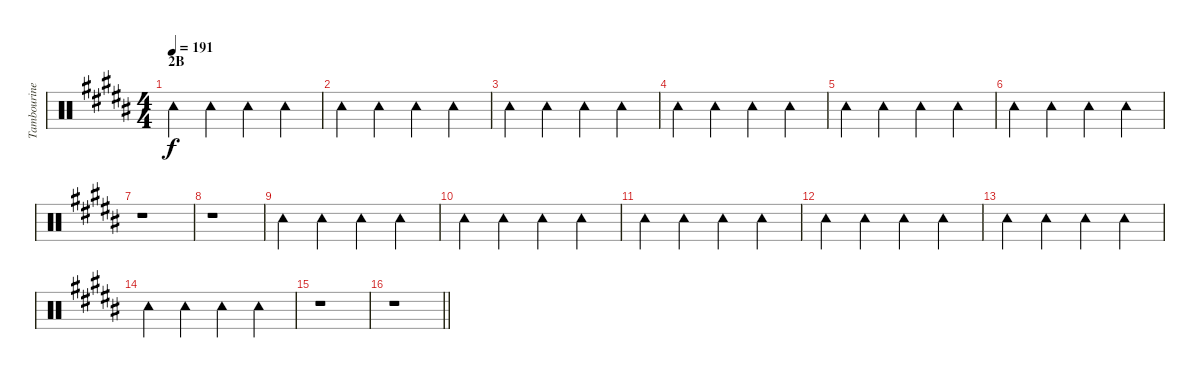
\track ("Tambourine" "Tambourine") {instrument percussion}
\staff {score}
\articulation defaults
\ts (4 4)
\section ("" "2B")
\tempo 191
\clef neutral
\ks b "Tambourine (hit)".4{dy f} "Tambourine (hit)".4 "Tambourine (hit)".4 "Tambourine (hit)".4
|
"Tambourine (hit)".4 "Tambourine (hit)".4 "Tambourine (hit)".4 "Tambourine (hit)".4 |
"Tambourine (hit)".4 "Tambourine (hit)".4 "Tambourine (hit)".4 "Tambourine (hit)".4 |
"Tambourine (hit)".4 "Tambourine (hit)".4 "Tambourine (hit)".4 "Tambourine (hit)".4 |
"Tambourine (hit)".4 "Tambourine (hit)".4 "Tambourine (hit)".4 "Tambourine (hit)".4 |
"Tambourine (hit)".4 "Tambourine (hit)".4 "Tambourine (hit)".4 "Tambourine (hit)".4 |
r.1 |
r.1 |
"Tambourine (hit)".4 "Tambourine (hit)".4 "Tambourine (hit)".4 "Tambourine (hit)".4 |
"Tambourine (hit)".4 "Tambourine (hit)".4 "Tambourine (hit)".4 "Tambourine (hit)".4 |
"Tambourine (hit)".4 "Tambourine (hit)".4 "Tambourine (hit)".4 "Tambourine (hit)".4 |
"Tambourine (hit)".4 "Tambourine (hit)".4 "Tambourine (hit)".4 "Tambourine (hit)".4 |
"Tambourine (hit)".4 "Tambourine (hit)".4 "Tambourine (hit)".4 "Tambourine (hit)".4 |
"Tambourine (hit)".4 "Tambourine (hit)".4 "Tambourine (hit)".4 "Tambourine (hit)".4 |
r.1 |
\barLineRight lightlight
r.1
